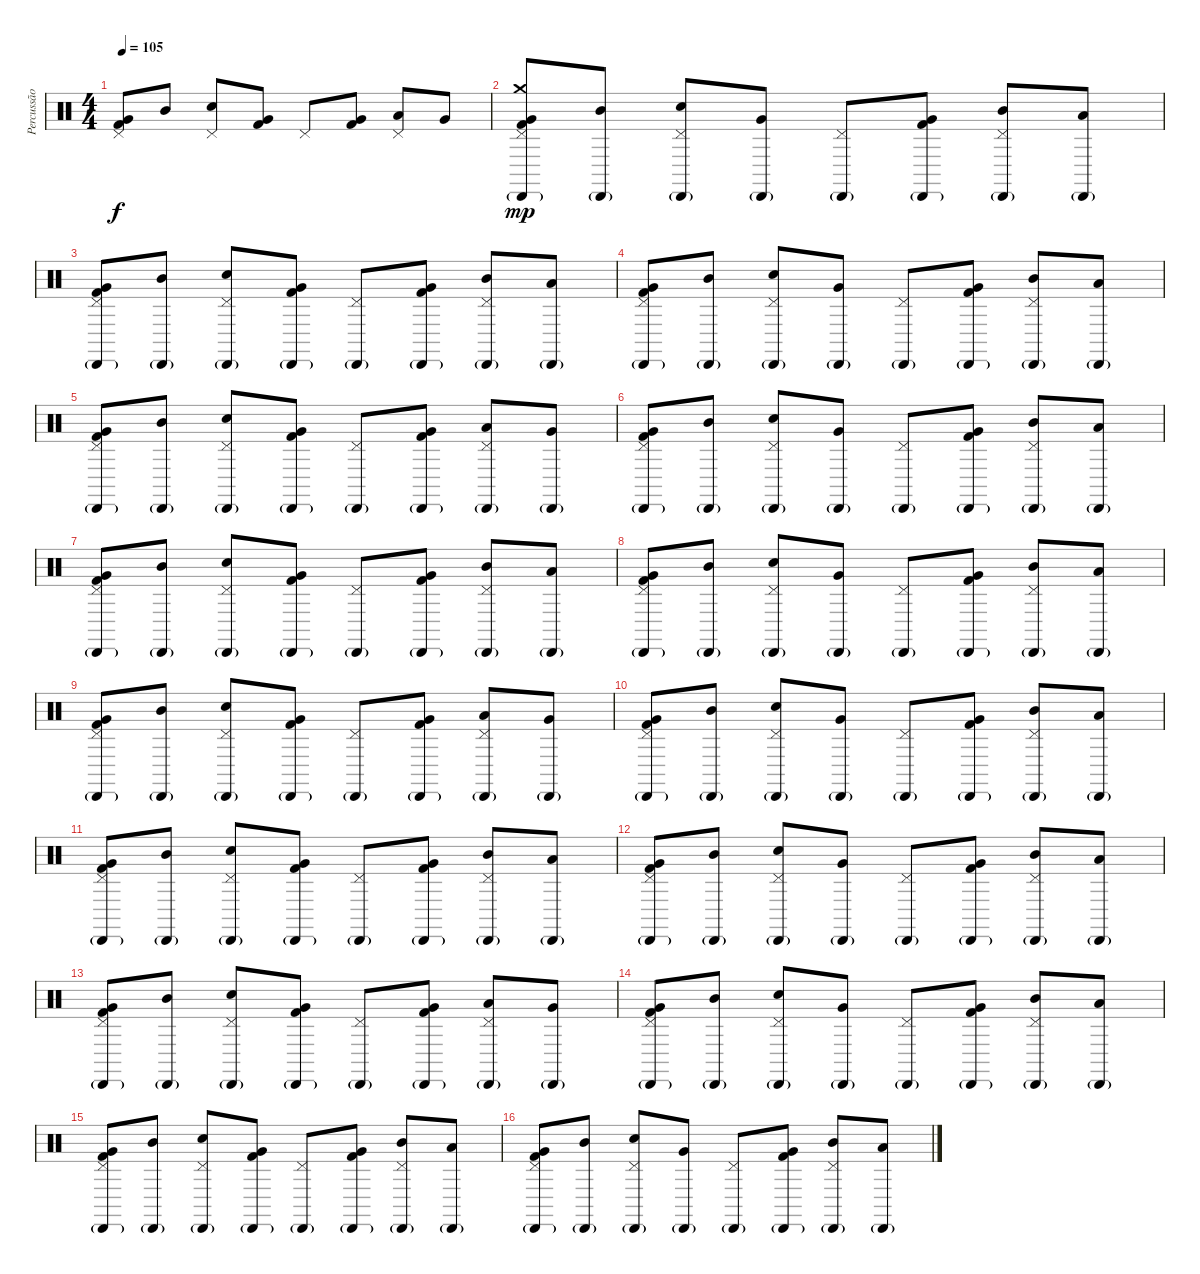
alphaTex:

\track ("Percussão" "Percussão") {instrument percussion}
\staff {score}
\articulation defaults
\ts (4 4)
\tempo 105
\clef neutral
\ks c
("Pedal Hi-Hat (hit)" "Very Low Tom (hit)" "Kick (hit) 2").8{dy f} "Mid Tom (hit)".8 ("Pedal Hi-Hat (hit)" "Snare (hit) 2").8 ("Very Low Tom (hit)" "Kick (hit) 2").8 "Pedal Hi-Hat (hit)".8 ("Very Low Tom (hit)" "Kick (hit) 2").8 ("Pedal Hi-Hat (hit)" "Low Tom (hit)").8 "Very Low Tom (hit)".8 |
("Crash medium (hit)" "Cabasa (hit)"{g} "Pedal Hi-Hat (hit)" "Very Low Tom (hit)" "Kick (hit) 2").8{dy mp} ("Cabasa (hit)"{g} "Mid Tom (hit)").8 ("Cabasa (hit)"{g} "Pedal Hi-Hat (hit)" "Snare (hit) 2").8 ("Cabasa (hit)"{g} "Very Low Tom (hit)").8 ("Cabasa (hit)"{g} "Pedal Hi-Hat (hit)").8 ("Cabasa (hit)"{g} "Very Low Tom (hit)" "Kick (hit) 2").8 ("Cabasa (hit)"{g} "Pedal Hi-Hat (hit)" "Mid Tom (hit)").8 ("Cabasa (hit)"{g} "Low Tom (hit)").8 |
("Cabasa (hit)"{g} "Pedal Hi-Hat (hit)" "Very Low Tom (hit)" "Kick (hit) 2").8 ("Cabasa (hit)"{g} "Mid Tom (hit)").8 ("Cabasa (hit)"{g} "Pedal Hi-Hat (hit)" "Snare (hit) 2").8 ("Cabasa (hit)"{g} "Very Low Tom (hit)" "Kick (hit) 2").8 ("Cabasa (hit)"{g} "Pedal Hi-Hat (hit)").8 ("Cabasa (hit)"{g} "Very Low Tom (hit)" "Kick (hit) 2").8 ("Cabasa (hit)"{g} "Pedal Hi-Hat (hit)" "Mid Tom (hit)").8 ("Cabasa (hit)"{g} "Low Tom (hit)").8 |
("Cabasa (hit)"{g} "Pedal Hi-Hat (hit)" "Very Low Tom (hit)" "Kick (hit) 2").8 ("Cabasa (hit)"{g} "Mid Tom (hit)").8 ("Cabasa (hit)"{g} "Pedal Hi-Hat (hit)" "Snare (hit) 2").8 ("Cabasa (hit)"{g} "Very Low Tom (hit)").8 ("Cabasa (hit)"{g} "Pedal Hi-Hat (hit)").8 ("Cabasa (hit)"{g} "Very Low Tom (hit)" "Kick (hit) 2").8 ("Cabasa (hit)"{g} "Pedal Hi-Hat (hit)" "Mid Tom (hit)").8 ("Cabasa (hit)"{g} "Low Tom (hit)").8 |
("Cabasa (hit)"{g} "Pedal Hi-Hat (hit)" "Very Low Tom (hit)" "Kick (hit) 2").8 ("Cabasa (hit)"{g} "Mid Tom (hit)").8 ("Cabasa (hit)"{g} "Pedal Hi-Hat (hit)" "Snare (hit) 2").8 ("Cabasa (hit)"{g} "Very Low Tom (hit)" "Kick (hit) 2").8 ("Cabasa (hit)"{g} "Pedal Hi-Hat (hit)").8 ("Cabasa (hit)"{g} "Very Low Tom (hit)" "Kick (hit) 2").8 ("Cabasa (hit)"{g} "Pedal Hi-Hat (hit)" "Low Tom (hit)").8 ("Cabasa (hit)"{g} "Very Low Tom (hit)").8 |
("Cabasa (hit)"{g} "Pedal Hi-Hat (hit)" "Very Low Tom (hit)" "Kick (hit) 2").8 ("Cabasa (hit)"{g} "Mid Tom (hit)").8 ("Cabasa (hit)"{g} "Pedal Hi-Hat (hit)" "Snare (hit) 2").8 ("Cabasa (hit)"{g} "Very Low Tom (hit)").8 ("Cabasa (hit)"{g} "Pedal Hi-Hat (hit)").8 ("Cabasa (hit)"{g} "Very Low Tom (hit)" "Kick (hit) 2").8 ("Cabasa (hit)"{g} "Pedal Hi-Hat (hit)" "Mid Tom (hit)").8 ("Cabasa (hit)"{g} "Low Tom (hit)").8 |
("Cabasa (hit)"{g} "Pedal Hi-Hat (hit)" "Very Low Tom (hit)" "Kick (hit) 2").8 ("Cabasa (hit)"{g} "Mid Tom (hit)").8 ("Cabasa (hit)"{g} "Pedal Hi-Hat (hit)" "Snare (hit) 2").8 ("Cabasa (hit)"{g} "Very Low Tom (hit)" "Kick (hit) 2").8 ("Cabasa (hit)"{g} "Pedal Hi-Hat (hit)").8 ("Cabasa (hit)"{g} "Very Low Tom (hit)" "Kick (hit) 2").8 ("Cabasa (hit)"{g} "Pedal Hi-Hat (hit)" "Mid Tom (hit)").8 ("Cabasa (hit)"{g} "Low Tom (hit)").8 |
("Cabasa (hit)"{g} "Pedal Hi-Hat (hit)" "Very Low Tom (hit)" "Kick (hit) 2").8 ("Cabasa (hit)"{g} "Mid Tom (hit)").8 ("Cabasa (hit)"{g} "Pedal Hi-Hat (hit)" "Snare (hit) 2").8 ("Cabasa (hit)"{g} "Very Low Tom (hit)").8 ("Cabasa (hit)"{g} "Pedal Hi-Hat (hit)").8 ("Cabasa (hit)"{g} "Very Low Tom (hit)" "Kick (hit) 2").8 ("Cabasa (hit)"{g} "Pedal Hi-Hat (hit)" "Mid Tom (hit)").8 ("Cabasa (hit)"{g} "Low Tom (hit)").8 |
("Cabasa (hit)"{g} "Pedal Hi-Hat (hit)" "Very Low Tom (hit)" "Kick (hit) 2").8 ("Cabasa (hit)"{g} "Mid Tom (hit)").8 ("Cabasa (hit)"{g} "Pedal Hi-Hat (hit)" "Snare (hit) 2").8 ("Cabasa (hit)"{g} "Very Low Tom (hit)" "Kick (hit) 2").8 ("Cabasa (hit)"{g} "Pedal Hi-Hat (hit)").8 ("Cabasa (hit)"{g} "Very Low Tom (hit)" "Kick (hit) 2").8 ("Cabasa (hit)"{g} "Pedal Hi-Hat (hit)" "Low Tom (hit)").8 ("Cabasa (hit)"{g} "Very Low Tom (hit)").8 |
("Cabasa (hit)"{g} "Pedal Hi-Hat (hit)" "Very Low Tom (hit)" "Kick (hit) 2").8 ("Cabasa (hit)"{g} "Mid Tom (hit)").8 ("Cabasa (hit)"{g} "Pedal Hi-Hat (hit)" "Snare (hit) 2").8 ("Cabasa (hit)"{g} "Very Low Tom (hit)").8 ("Cabasa (hit)"{g} "Pedal Hi-Hat (hit)").8 ("Cabasa (hit)"{g} "Very Low Tom (hit)" "Kick (hit) 2").8 ("Cabasa (hit)"{g} "Pedal Hi-Hat (hit)" "Mid Tom (hit)").8 ("Cabasa (hit)"{g} "Low Tom (hit)").8 |
("Cabasa (hit)"{g} "Pedal Hi-Hat (hit)" "Very Low Tom (hit)" "Kick (hit) 2").8 ("Cabasa (hit)"{g} "Mid Tom (hit)").8 ("Cabasa (hit)"{g} "Pedal Hi-Hat (hit)" "Snare (hit) 2").8 ("Cabasa (hit)"{g} "Very Low Tom (hit)" "Kick (hit) 2").8 ("Cabasa (hit)"{g} "Pedal Hi-Hat (hit)").8 ("Cabasa (hit)"{g} "Very Low Tom (hit)" "Kick (hit) 2").8 ("Cabasa (hit)"{g} "Pedal Hi-Hat (hit)" "Mid Tom (hit)").8 ("Cabasa (hit)"{g} "Low Tom (hit)").8 |
("Cabasa (hit)"{g} "Pedal Hi-Hat (hit)" "Very Low Tom (hit)" "Kick (hit) 2").8 ("Cabasa (hit)"{g} "Mid Tom (hit)").8 ("Cabasa (hit)"{g} "Pedal Hi-Hat (hit)" "Snare (hit) 2").8 ("Cabasa (hit)"{g} "Very Low Tom (hit)").8 ("Cabasa (hit)"{g} "Pedal Hi-Hat (hit)").8 ("Cabasa (hit)"{g} "Very Low Tom (hit)" "Kick (hit) 2").8 ("Cabasa (hit)"{g} "Pedal Hi-Hat (hit)" "Mid Tom (hit)").8 ("Cabasa (hit)"{g} "Low Tom (hit)").8 |
("Cabasa (hit)"{g} "Pedal Hi-Hat (hit)" "Very Low Tom (hit)" "Kick (hit) 2").8 ("Cabasa (hit)"{g} "Mid Tom (hit)").8 ("Cabasa (hit)"{g} "Pedal Hi-Hat (hit)" "Snare (hit) 2").8 ("Cabasa (hit)"{g} "Very Low Tom (hit)" "Kick (hit) 2").8 ("Cabasa (hit)"{g} "Pedal Hi-Hat (hit)").8 ("Cabasa (hit)"{g} "Very Low Tom (hit)" "Kick (hit) 2").8 ("Cabasa (hit)"{g} "Pedal Hi-Hat (hit)" "Low Tom (hit)").8 ("Cabasa (hit)"{g} "Very Low Tom (hit)").8 |
("Cabasa (hit)"{g} "Pedal Hi-Hat (hit)" "Very Low Tom (hit)" "Kick (hit) 2").8 ("Cabasa (hit)"{g} "Mid Tom (hit)").8 ("Cabasa (hit)"{g} "Pedal Hi-Hat (hit)" "Snare (hit) 2").8 ("Cabasa (hit)"{g} "Very Low Tom (hit)").8 ("Cabasa (hit)"{g} "Pedal Hi-Hat (hit)").8 ("Cabasa (hit)"{g} "Very Low Tom (hit)" "Kick (hit) 2").8 ("Cabasa (hit)"{g} "Pedal Hi-Hat (hit)" "Mid Tom (hit)").8 ("Cabasa (hit)"{g} "Low Tom (hit)").8 |
("Cabasa (hit)"{g} "Pedal Hi-Hat (hit)" "Very Low Tom (hit)" "Kick (hit) 2").8 ("Cabasa (hit)"{g} "Mid Tom (hit)").8 ("Cabasa (hit)"{g} "Pedal Hi-Hat (hit)" "Snare (hit) 2").8 ("Cabasa (hit)"{g} "Very Low Tom (hit)" "Kick (hit) 2").8 ("Cabasa (hit)"{g} "Pedal Hi-Hat (hit)").8 ("Cabasa (hit)"{g} "Very Low Tom (hit)" "Kick (hit) 2").8 ("Cabasa (hit)"{g} "Pedal Hi-Hat (hit)" "Mid Tom (hit)").8 ("Cabasa (hit)"{g} "Low Tom (hit)").8 |
("Cabasa (hit)"{g} "Pedal Hi-Hat (hit)" "Very Low Tom (hit)" "Kick (hit) 2").8 ("Cabasa (hit)"{g} "Mid Tom (hit)").8 ("Cabasa (hit)"{g} "Pedal Hi-Hat (hit)" "Snare (hit) 2").8 ("Cabasa (hit)"{g} "Very Low Tom (hit)").8 ("Cabasa (hit)"{g} "Pedal Hi-Hat (hit)").8 ("Cabasa (hit)"{g} "Very Low Tom (hit)" "Kick (hit) 2").8 ("Cabasa (hit)"{g} "Pedal Hi-Hat (hit)" "Mid Tom (hit)").8 ("Cabasa (hit)"{g} "Low Tom (hit)").8
